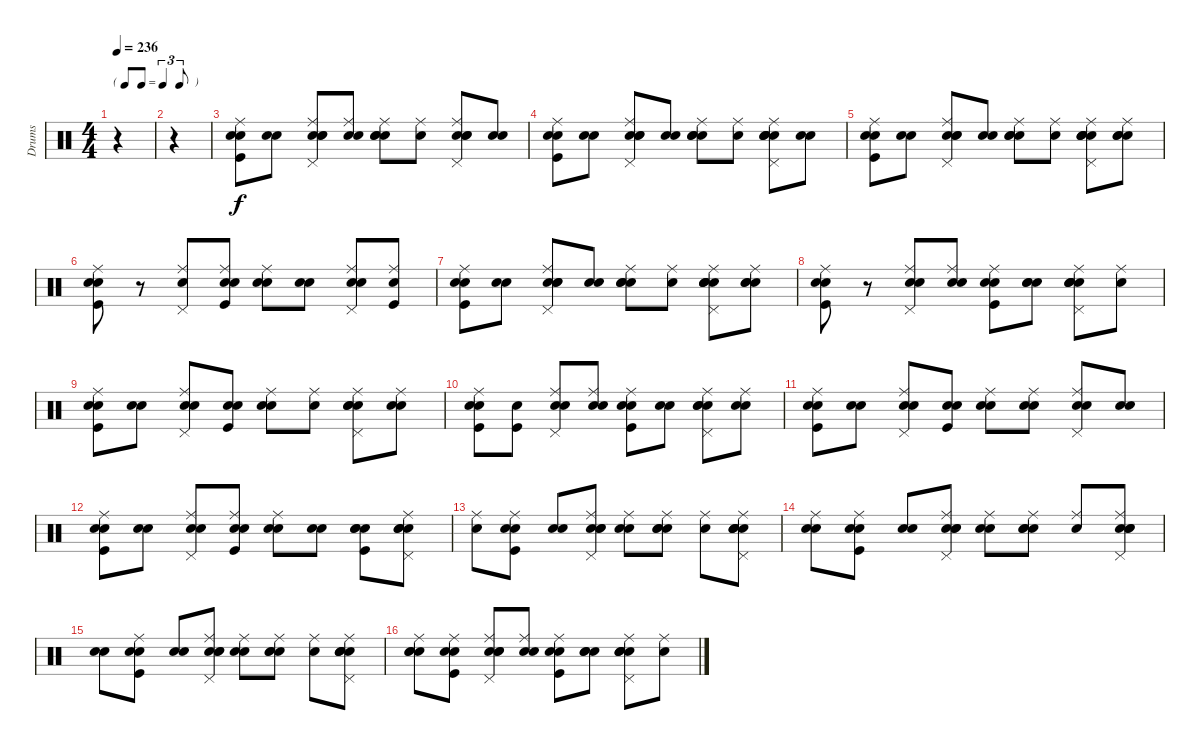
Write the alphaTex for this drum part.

\track ("Drums" "Drums") {instrument percussion}
\staff {score}
\articulation defaults
\ts (4 4)
\tf triplet8th
\tempo 236
\clef neutral
\ks c
r.4{dy f} |
r.4 |
("Snare (hit)" "Kick (hit)" "Electric Snare (hit)" "Ride (middle)").8 ("Snare (hit)" "Electric Snare (hit)").8 ("Snare (hit)" "Snare (hit) 2" "Electric Snare (hit)" "Ride (middle)" "Pedal Hi-Hat (hit)").8 ("Snare (hit)" "Snare (hit) 2" "Ride (middle)").8 ("Snare (hit)" "Snare (hit) 2" "Electric Snare (hit)" "Ride (middle)").8 ("Snare (hit)" "Ride (middle)").8 ("Snare (hit)" "Snare (hit) 2" "Electric Snare (hit)" "Ride (middle)" "Pedal Hi-Hat (hit)").8 ("Snare (hit)" "Snare (hit) 2").8 |
("Snare (hit)" "Kick (hit)" "Electric Snare (hit)" "Ride (middle)").8 ("Snare (hit)" "Electric Snare (hit)").8 ("Snare (hit)" "Snare (hit) 2" "Electric Snare (hit)" "Ride (middle)" "Pedal Hi-Hat (hit)").8 ("Snare (hit)" "Snare (hit) 2").8 ("Snare (hit)" "Snare (hit) 2" "Electric Snare (hit)" "Ride (middle)").8 ("Snare (hit)" "Ride (middle)").8 ("Snare (hit)" "Snare (hit) 2" "Electric Snare (hit)" "Ride (middle)" "Pedal Hi-Hat (hit)" "Hand Clap (hit)").8 ("Snare (hit)" "Snare (hit) 2").8 |
("Snare (hit)" "Kick (hit)" "Electric Snare (hit)" "Ride (middle)").8 ("Snare (hit)" "Electric Snare (hit)").8 ("Snare (hit)" "Snare (hit) 2" "Electric Snare (hit)" "Ride (middle)" "Pedal Hi-Hat (hit)").8 ("Snare (hit)" "Snare (hit) 2").8 ("Snare (hit)" "Snare (hit) 2" "Electric Snare (hit)" "Ride (middle)").8 ("Snare (hit)" "Ride (middle)").8 ("Snare (hit)" "Snare (hit) 2" "Electric Snare (hit)" "Ride (middle)" "Pedal Hi-Hat (hit)" "Hand Clap (hit)").8 ("Snare (hit)" "Snare (hit) 2" "Ride (middle)" "Hand Clap (hit)").8 |
("Snare (hit)" "Kick (hit)" "Electric Snare (hit)" "Ride (middle)").8 r.8 ("Snare (hit) 2" "Ride (middle)" "Pedal Hi-Hat (hit)").8 ("Snare (hit)" "Kick (hit)" "Snare (hit) 2" "Ride (middle)").8 ("Snare (hit)" "Electric Snare (hit)" "Ride (middle)").8 ("Snare (hit)" "Hand Clap (hit)").8 ("Snare (hit)" "Snare (hit) 2" "Ride (middle)" "Pedal Hi-Hat (hit)").8 ("Snare (hit)" "Kick (hit)" "Ride (middle)").8 |
("Snare (hit)" "Kick (hit)" "Electric Snare (hit)" "Ride (middle)").8 ("Snare (hit)" "Electric Snare (hit)").8 ("Snare (hit)" "Snare (hit) 2" "Electric Snare (hit)" "Ride (middle)" "Pedal Hi-Hat (hit)").8 ("Snare (hit)" "Snare (hit) 2").8 ("Snare (hit)" "Snare (hit) 2" "Electric Snare (hit)" "Ride (middle)").8 ("Snare (hit)" "Ride (middle)").8 ("Snare (hit)" "Snare (hit) 2" "Electric Snare (hit)" "Ride (middle)" "Pedal Hi-Hat (hit)" "Hand Clap (hit)").8 ("Snare (hit)" "Snare (hit) 2" "Ride (middle)" "Hand Clap (hit)").8 |
("Snare (hit)" "Kick (hit)" "Electric Snare (hit)" "Ride (middle)").8 r.8 ("Snare (hit) 2" "Electric Snare (hit)" "Ride (middle)" "Pedal Hi-Hat (hit)").8 ("Snare (hit)" "Ride (middle)" "Hand Clap (hit)").8 ("Snare (hit)" "Kick (hit)" "Electric Snare (hit)" "Ride (middle)").8 ("Snare (hit)" "Electric Snare (hit)" "Hand Clap (hit)").8 ("Snare (hit)" "Snare (hit) 2" "Electric Snare (hit)" "Ride (middle)" "Pedal Hi-Hat (hit)" "Hand Clap (hit)").8 ("Snare (hit)" "Ride (middle)").8 |
("Snare (hit)" "Kick (hit)" "Electric Snare (hit)" "Ride (middle)").8 ("Snare (hit)" "Electric Snare (hit)").8 ("Snare (hit)" "Snare (hit) 2" "Ride (middle)" "Pedal Hi-Hat (hit)").8 ("Snare (hit)" "Kick (hit)" "Snare (hit) 2").8 ("Snare (hit)" "Electric Snare (hit)" "Ride (middle)").8 ("Snare (hit)" "Ride (middle)").8 ("Snare (hit)" "Snare (hit) 2" "Ride (middle)" "Pedal Hi-Hat (hit)" "Hand Clap (hit)").8 ("Snare (hit)" "Ride (middle)" "Hand Clap (hit)").8 |
("Snare (hit)" "Kick (hit)" "Electric Snare (hit)" "Ride (middle)").8 ("Snare (hit)" "Kick (hit)").8 ("Snare (hit)" "Snare (hit) 2" "Ride (middle)" "Pedal Hi-Hat (hit)").8 ("Snare (hit)" "Snare (hit) 2" "Ride (middle)").8 ("Snare (hit)" "Kick (hit)" "Electric Snare (hit)" "Ride (middle)").8 ("Snare (hit)" "Hand Clap (hit)").8 ("Snare (hit)" "Snare (hit) 2" "Ride (middle)" "Pedal Hi-Hat (hit)" "Hand Clap (hit)").8 ("Snare (hit)" "Snare (hit) 2" "Ride (middle)").8 |
("Snare (hit)" "Kick (hit)" "Electric Snare (hit)" "Ride (middle)").8 ("Snare (hit)" "Electric Snare (hit)").8 ("Snare (hit)" "Snare (hit) 2" "Ride (middle)" "Pedal Hi-Hat (hit)").8 ("Snare (hit)" "Kick (hit)" "Hand Clap (hit)").8 ("Snare (hit)" "Electric Snare (hit)" "Ride (middle)").8 ("Snare (hit)" "Ride (middle)" "Hand Clap (hit)").8 ("Snare (hit)" "Snare (hit) 2" "Ride (middle)" "Pedal Hi-Hat (hit)").8 ("Snare (hit)" "Hand Clap (hit)").8 |
("Snare (hit)" "Kick (hit)" "Electric Snare (hit)" "Ride (middle)").8 ("Snare (hit)" "Electric Snare (hit)").8 ("Snare (hit)" "Snare (hit) 2" "Ride (middle)" "Pedal Hi-Hat (hit)").8 ("Snare (hit)" "Kick (hit)" "Snare (hit) 2" "Ride (middle)").8 ("Snare (hit)" "Electric Snare (hit)" "Ride (middle)").8 ("Snare (hit)" "Snare (hit) 2").8 ("Snare (hit)" "Kick (hit)" "Electric Snare (hit)" "Hand Clap (hit)").8 ("Snare (hit)" "Electric Snare (hit)" "Ride (middle)" "Pedal Hi-Hat (hit)" "Hand Clap (hit)").8 |
("Snare (hit)" "Ride (middle)").8 ("Snare (hit)" "Kick (hit)" "Electric Snare (hit)" "Ride (middle)").8 ("Snare (hit)" "Electric Snare (hit)").8 ("Snare (hit)" "Snare (hit) 2" "Electric Snare (hit)" "Ride (middle)" "Pedal Hi-Hat (hit)").8 ("Snare (hit)" "Snare (hit) 2" "Ride (middle)").8 ("Snare (hit)" "Snare (hit) 2" "Electric Snare (hit)" "Ride (middle)").8 ("Snare (hit)" "Ride (middle)").8 ("Snare (hit)" "Snare (hit) 2" "Electric Snare (hit)" "Ride (middle)" "Pedal Hi-Hat (hit)" "Hand Clap (hit)").8 |
("Snare (hit)" "Snare (hit) 2" "Ride (middle)").8 ("Snare (hit)" "Kick (hit)" "Electric Snare (hit)" "Ride (middle)").8 ("Snare (hit)" "Electric Snare (hit)").8 ("Snare (hit)" "Snare (hit) 2" "Electric Snare (hit)" "Ride (middle)" "Pedal Hi-Hat (hit)").8 ("Snare (hit)" "Snare (hit) 2" "Ride (middle)").8 ("Snare (hit)" "Snare (hit) 2" "Electric Snare (hit)" "Ride (middle)").8 ("Snare (hit)" "Ride (middle)").8 ("Snare (hit)" "Snare (hit) 2" "Electric Snare (hit)" "Ride (middle)" "Pedal Hi-Hat (hit)").8 |
("Snare (hit)" "Snare (hit) 2").8 ("Snare (hit)" "Kick (hit)" "Electric Snare (hit)" "Ride (middle)").8 ("Snare (hit)" "Electric Snare (hit)").8 ("Snare (hit)" "Snare (hit) 2" "Electric Snare (hit)" "Ride (middle)" "Pedal Hi-Hat (hit)").8 ("Snare (hit)" "Snare (hit) 2" "Ride (middle)").8 ("Snare (hit)" "Snare (hit) 2" "Electric Snare (hit)" "Ride (middle)").8 ("Snare (hit)" "Ride (middle)").8 ("Snare (hit)" "Snare (hit) 2" "Electric Snare (hit)" "Ride (middle)" "Pedal Hi-Hat (hit)" "Hand Clap (hit)").8 |
("Snare (hit)" "Snare (hit) 2" "Ride (middle)" "Hand Clap (hit)").8 ("Snare (hit)" "Kick (hit)" "Electric Snare (hit)" "Ride (middle)").8 ("Snare (hit)" "Snare (hit) 2" "Electric Snare (hit)" "Ride (middle)" "Pedal Hi-Hat (hit)").8 ("Snare (hit)" "Snare (hit) 2" "Ride (middle)").8 ("Snare (hit)" "Kick (hit)" "Electric Snare (hit)" "Ride (middle)").8 ("Snare (hit)" "Electric Snare (hit)" "Hand Clap (hit)").8 ("Snare (hit)" "Snare (hit) 2" "Electric Snare (hit)" "Ride (middle)" "Pedal Hi-Hat (hit)" "Hand Clap (hit)").8 ("Snare (hit)" "Ride (middle)").8
